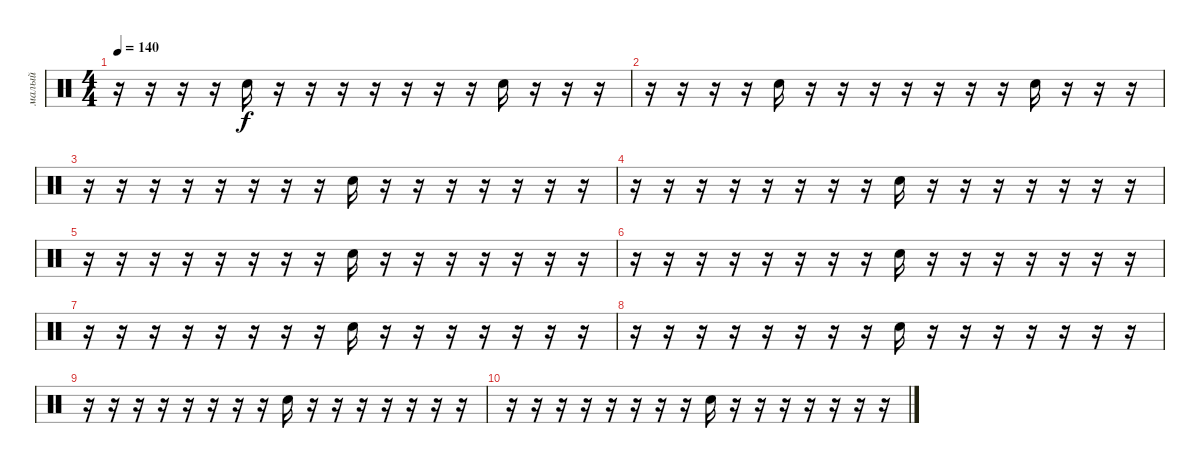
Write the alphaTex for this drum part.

\track ("малый" "малый") {mute instrument percussion}
\staff {score}
\articulation defaults
\ts (4 4)
\tempo 140
\clef neutral
\ks c
r.16{dy f} r.16 r.16 r.16 "Electric Snare (hit)".16 r.16 r.16 r.16 r.16 r.16 r.16 r.16 "Electric Snare (hit)".16 r.16 r.16 r.16 |
r.16 r.16 r.16 r.16 "Electric Snare (hit)".16 r.16 r.16 r.16 r.16 r.16 r.16 r.16 "Electric Snare (hit)".16 r.16 r.16 r.16 |
r.16 r.16 r.16 r.16 r.16 r.16 r.16 r.16 "Electric Snare (hit)".16 r.16 r.16 r.16 r.16 r.16 r.16 r.16 |
r.16 r.16 r.16 r.16 r.16 r.16 r.16 r.16 "Electric Snare (hit)".16 r.16 r.16 r.16 r.16 r.16 r.16 r.16 |
r.16 r.16 r.16 r.16 r.16 r.16 r.16 r.16 "Electric Snare (hit)".16 r.16 r.16 r.16 r.16 r.16 r.16 r.16 |
r.16 r.16 r.16 r.16 r.16 r.16 r.16 r.16 "Electric Snare (hit)".16 r.16 r.16 r.16 r.16 r.16 r.16 r.16 |
r.16 r.16 r.16 r.16 r.16 r.16 r.16 r.16 "Electric Snare (hit)".16 r.16 r.16 r.16 r.16 r.16 r.16 r.16 |
r.16 r.16 r.16 r.16 r.16 r.16 r.16 r.16 "Electric Snare (hit)".16 r.16 r.16 r.16 r.16 r.16 r.16 r.16 |
r.16 r.16 r.16 r.16 r.16 r.16 r.16 r.16 "Electric Snare (hit)".16 r.16 r.16 r.16 r.16 r.16 r.16 r.16 |
r.16 r.16 r.16 r.16 r.16 r.16 r.16 r.16 "Electric Snare (hit)".16 r.16 r.16 r.16 r.16 r.16 r.16 r.16
